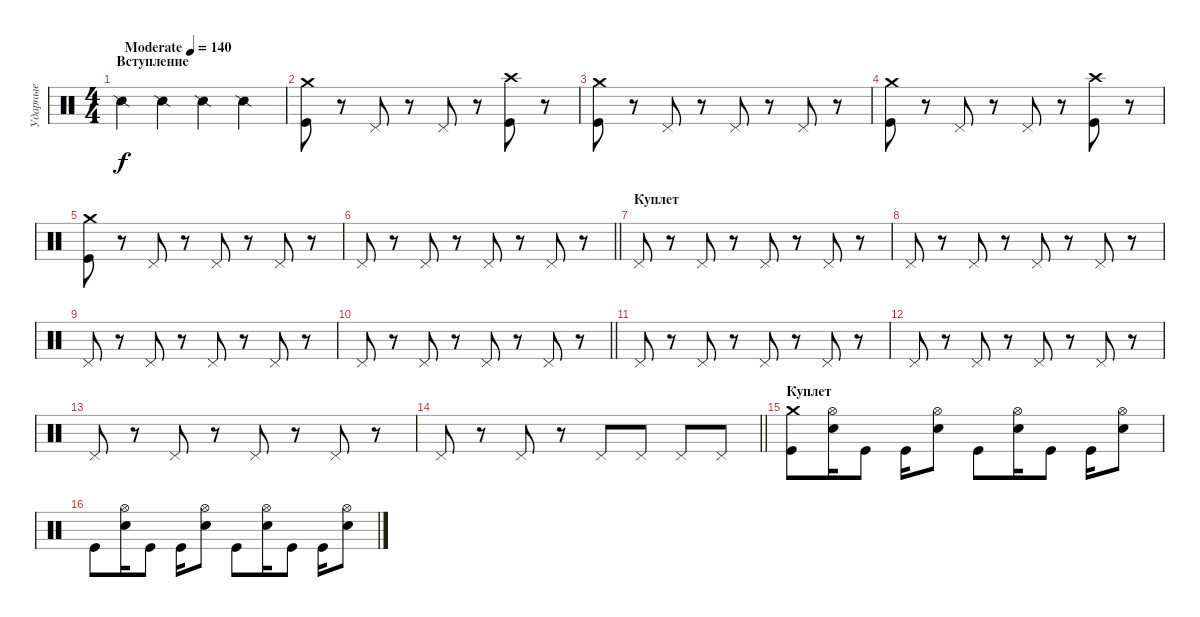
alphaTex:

\track ("Ударные" "Ударные") {instrument percussion}
\staff {score}
\articulation defaults
\ts (4 4)
\section ("" "Вступление")
\tempo (140 "Moderate")
\clef neutral
\ks c "Snare (side stick) 2".4{dy f} "Snare (side stick) 2".4 "Snare (side stick) 2".4 "Snare (side stick) 2".4
|
("Crash medium (hit)" "Kick (hit)").8 r.8 "Pedal Hi-Hat (hit)".8 r.8 "Pedal Hi-Hat (hit)".8 r.8 ("Crash high (hit)" "Kick (hit)").8 r.8 |
("Crash medium (hit)" "Kick (hit)").8 r.8 "Pedal Hi-Hat (hit)".8 r.8 "Pedal Hi-Hat (hit)".8 r.8 "Pedal Hi-Hat (hit)".8 r.8 |
("Crash medium (hit)" "Kick (hit)").8 r.8 "Pedal Hi-Hat (hit)".8 r.8 "Pedal Hi-Hat (hit)".8 r.8 ("Crash high (hit)" "Kick (hit)").8 r.8 |
("Crash medium (hit)" "Kick (hit)").8 r.8 "Pedal Hi-Hat (hit)".8 r.8 "Pedal Hi-Hat (hit)".8 r.8 "Pedal Hi-Hat (hit)".8 r.8 |
\barLineRight lightlight "Pedal Hi-Hat (hit)".8
r.8 "Pedal Hi-Hat (hit)".8 r.8 "Pedal Hi-Hat (hit)".8 r.8 "Pedal Hi-Hat (hit)".8 r.8 |
\section ("" "Куплет")
"Pedal Hi-Hat (hit)".8 r.8 "Pedal Hi-Hat (hit)".8 r.8 "Pedal Hi-Hat (hit)".8 r.8 "Pedal Hi-Hat (hit)".8 r.8 |
"Pedal Hi-Hat (hit)".8 r.8 "Pedal Hi-Hat (hit)".8 r.8 "Pedal Hi-Hat (hit)".8 r.8 "Pedal Hi-Hat (hit)".8 r.8 |
"Pedal Hi-Hat (hit)".8 r.8 "Pedal Hi-Hat (hit)".8 r.8 "Pedal Hi-Hat (hit)".8 r.8 "Pedal Hi-Hat (hit)".8 r.8 |
\barLineRight lightlight "Pedal Hi-Hat (hit)".8
r.8 "Pedal Hi-Hat (hit)".8 r.8 "Pedal Hi-Hat (hit)".8 r.8 "Pedal Hi-Hat (hit)".8 r.8 |
\section ("" " ")
"Pedal Hi-Hat (hit)".8 r.8 "Pedal Hi-Hat (hit)".8 r.8 "Pedal Hi-Hat (hit)".8 r.8 "Pedal Hi-Hat (hit)".8 r.8 |
"Pedal Hi-Hat (hit)".8 r.8 "Pedal Hi-Hat (hit)".8 r.8 "Pedal Hi-Hat (hit)".8 r.8 "Pedal Hi-Hat (hit)".8 r.8 |
"Pedal Hi-Hat (hit)".8 r.8 "Pedal Hi-Hat (hit)".8 r.8 "Pedal Hi-Hat (hit)".8 r.8 "Pedal Hi-Hat (hit)".8 r.8 |
\barLineRight lightlight "Pedal Hi-Hat (hit)".8
r.8 "Pedal Hi-Hat (hit)".8 r.8 "Pedal Hi-Hat (hit)".8 "Pedal Hi-Hat (hit)".8 "Pedal Hi-Hat (hit)".8 "Pedal Hi-Hat (hit)".8 |
\section ("" "Куплет")
("Crash medium (hit)" "Kick (hit)").8 ("Hi-Hat (open)" "Electric Snare (hit)").16 "Kick (hit)".8 "Kick (hit)".16 ("Hi-Hat (open)" "Electric Snare (hit)").8 "Kick (hit)".8 ("Hi-Hat (open)" "Electric Snare (hit)").16 "Kick (hit)".8 "Kick (hit)".16 ("Hi-Hat (open)" "Electric Snare (hit)").8 |
"Kick (hit)".8 ("Hi-Hat (open)" "Electric Snare (hit)").16 "Kick (hit)".8 "Kick (hit)".16 ("Hi-Hat (open)" "Electric Snare (hit)").8 "Kick (hit)".8 ("Hi-Hat (open)" "Electric Snare (hit)").16 "Kick (hit)".8 "Kick (hit)".16 ("Hi-Hat (open)" "Electric Snare (hit)").8
